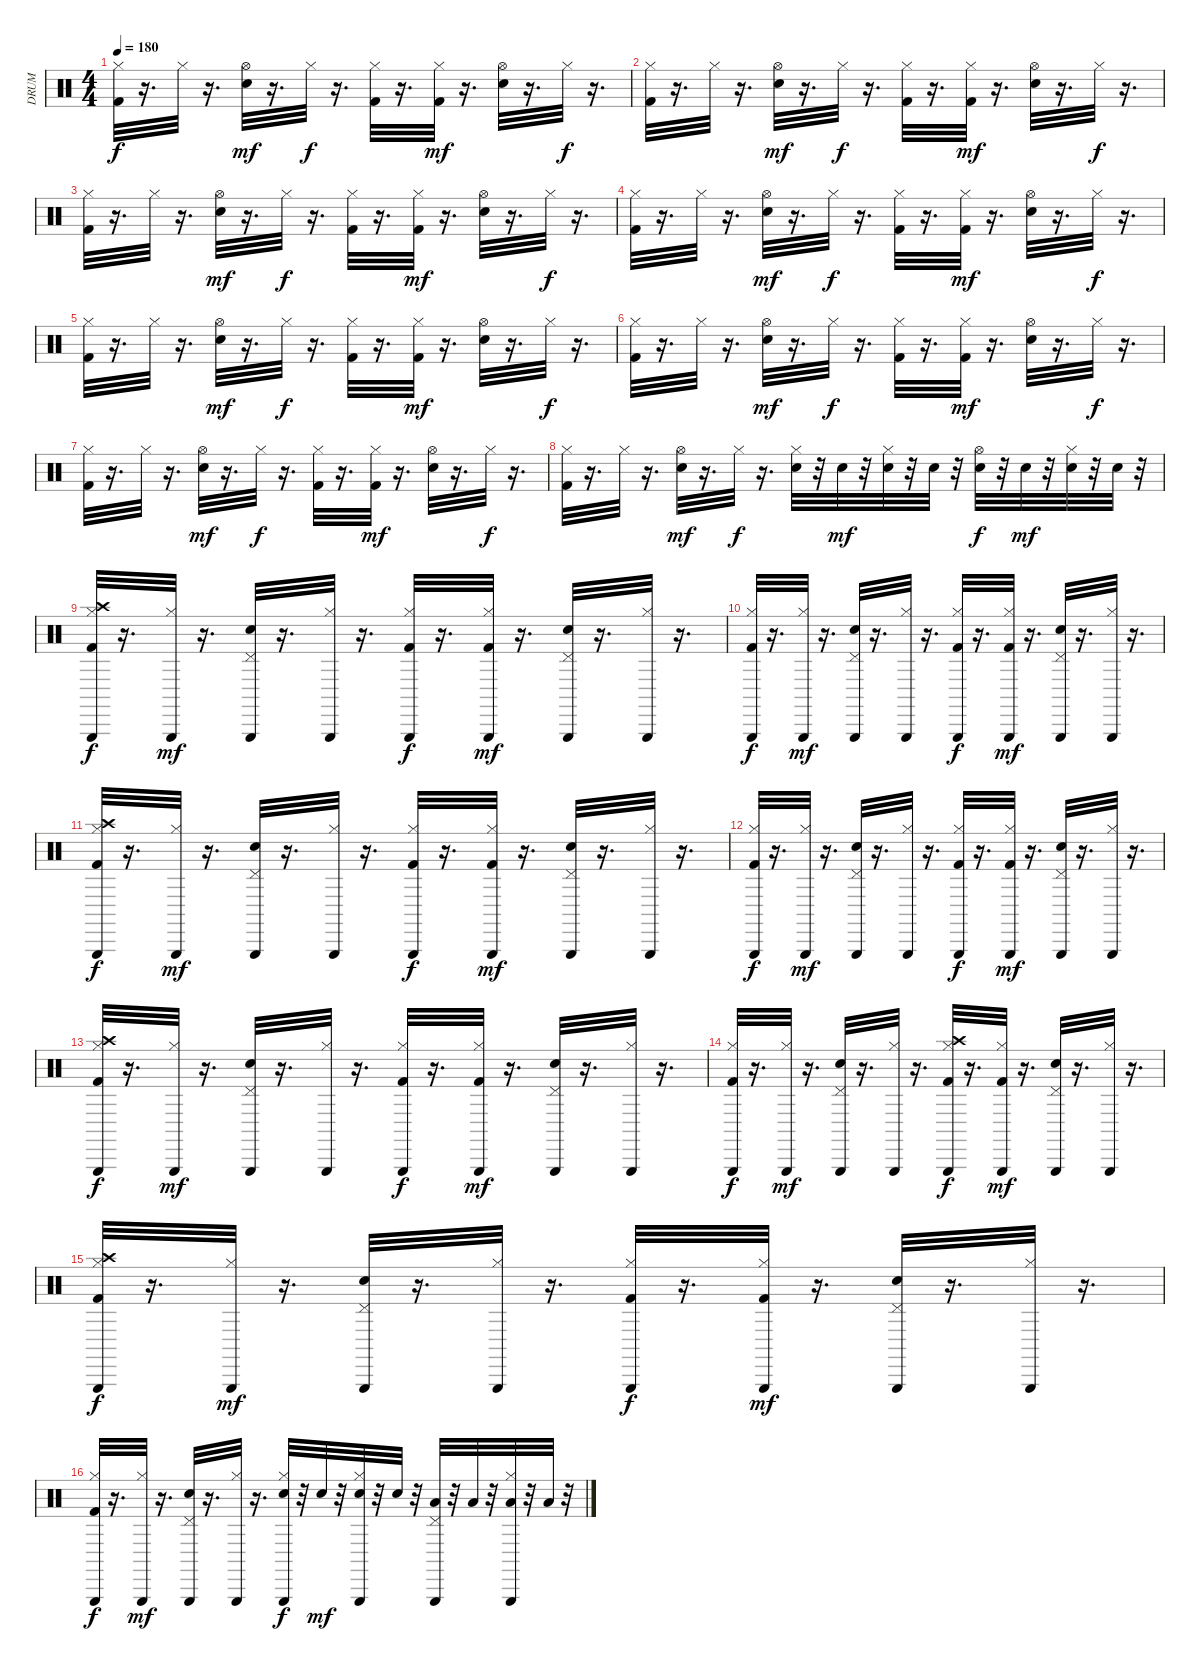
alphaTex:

\track ("DRUM" "DRUM") {instrument percussion}
\staff {score}
\articulation defaults
\ts (4 4)
\tempo 180
\clef neutral
\ks c
("Hi-Hat (closed)" "Kick (hit) 2").32{dy f} r.16{d} "Hi-Hat (closed)".32 r.16{d} ("Snare (hit) 2" "Hi-Hat (open)").32{dy mf} r.16{d} "Hi-Hat (closed)".32{dy f} r.16{d} ("Hi-Hat (closed)" "Kick (hit) 2").32 r.16{d} ("Hi-Hat (closed)" "Kick (hit) 2").32{dy mf} r.16{d} ("Hi-Hat (open)" "Snare (hit) 2").32 r.16{d} "Hi-Hat (closed)".32{dy f} r.16{d} |
("Kick (hit) 2" "Hi-Hat (closed)").32 r.16{d} "Hi-Hat (closed)".32 r.16{d} ("Hi-Hat (open)" "Snare (hit) 2").32{dy mf} r.16{d} "Hi-Hat (closed)".32{dy f} r.16{d} ("Hi-Hat (closed)" "Kick (hit) 2").32 r.16{d} ("Hi-Hat (closed)" "Kick (hit) 2").32{dy mf} r.16{d} ("Snare (hit) 2" "Hi-Hat (open)").32 r.16{d} "Hi-Hat (closed)".32{dy f} r.16{d} |
("Kick (hit) 2" "Hi-Hat (closed)").32 r.16{d} "Hi-Hat (closed)".32 r.16{d} ("Snare (hit) 2" "Hi-Hat (open)").32{dy mf} r.16{d} "Hi-Hat (closed)".32{dy f} r.16{d} ("Hi-Hat (closed)" "Kick (hit) 2").32 r.16{d} ("Hi-Hat (closed)" "Kick (hit) 2").32{dy mf} r.16{d} ("Hi-Hat (open)" "Snare (hit) 2").32 r.16{d} "Hi-Hat (closed)".32{dy f} r.16{d} |
("Hi-Hat (closed)" "Kick (hit) 2").32 r.16{d} "Hi-Hat (closed)".32 r.16{d} ("Hi-Hat (open)" "Snare (hit) 2").32{dy mf} r.16{d} "Hi-Hat (closed)".32{dy f} r.16{d} ("Kick (hit) 2" "Hi-Hat (closed)").32 r.16{d} ("Hi-Hat (closed)" "Kick (hit) 2").32{dy mf} r.16{d} ("Snare (hit) 2" "Hi-Hat (open)").32 r.16{d} "Hi-Hat (closed)".32{dy f} r.16{d} |
("Hi-Hat (closed)" "Kick (hit) 2").32 r.16{d} "Hi-Hat (closed)".32 r.16{d} ("Snare (hit) 2" "Hi-Hat (open)").32{dy mf} r.16{d} "Hi-Hat (closed)".32{dy f} r.16{d} ("Hi-Hat (closed)" "Kick (hit) 2").32 r.16{d} ("Hi-Hat (closed)" "Kick (hit) 2").32{dy mf} r.16{d} ("Snare (hit) 2" "Hi-Hat (open)").32 r.16{d} "Hi-Hat (closed)".32{dy f} r.16{d} |
("Hi-Hat (closed)" "Kick (hit) 2").32 r.16{d} "Hi-Hat (closed)".32 r.16{d} ("Snare (hit) 2" "Hi-Hat (open)").32{dy mf} r.16{d} "Hi-Hat (closed)".32{dy f} r.16{d} ("Hi-Hat (closed)" "Kick (hit) 2").32 r.16{d} ("Hi-Hat (closed)" "Kick (hit) 2").32{dy mf} r.16{d} ("Hi-Hat (open)" "Snare (hit) 2").32 r.16{d} "Hi-Hat (closed)".32{dy f} r.16{d} |
("Hi-Hat (closed)" "Kick (hit) 2").32 r.16{d} "Hi-Hat (closed)".32 r.16{d} ("Hi-Hat (open)" "Snare (hit) 2").32{dy mf} r.16{d} "Hi-Hat (closed)".32{dy f} r.16{d} ("Kick (hit) 2" "Hi-Hat (closed)").32 r.16{d} ("Kick (hit) 2" "Hi-Hat (closed)").32{dy mf} r.16{d} ("Snare (hit) 2" "Hi-Hat (open)").32 r.16{d} "Hi-Hat (closed)".32{dy f} r.16{d} |
("Kick (hit) 2" "Hi-Hat (closed)").32 r.16{d} "Hi-Hat (closed)".32 r.16{d} ("Hi-Hat (open)" "Snare (hit) 2").32{dy mf} r.16{d} "Hi-Hat (closed)".32{dy f} r.16{d} ("Electric Snare (hit)" "Hi-Hat (closed)").32 r.32 "Electric Snare (hit)".32{dy mf} r.32 ("Electric Snare (hit)" "Hi-Hat (closed)").32 r.32 "Electric Snare (hit)".32 r.32 ("Hi-Hat (open)" "Snare (hit) 2").32{dy f} r.32 "Snare (hit) 2".32{dy mf} r.32 ("Hi-Hat (closed)" "Snare (hit) 2").32 r.32 "Snare (hit) 2".32 r.32 |
("Kick (hit) 2" "Crash high (hit)" "Hi-Hat (closed)" "Triangle (hit)").32{dy f} r.16{d} ("Triangle (hit)" "Hi-Hat (closed)").32{dy mf} r.16{d} ("Triangle (hit)" "Snare (hit) 2" "Pedal Hi-Hat (hit)").32 r.16{d} ("Triangle (hit)" "Hi-Hat (closed)").32 r.16{d} ("Triangle (hit)" "Hi-Hat (closed)" "Kick (hit) 2").32{dy f} r.16{d} ("Triangle (hit)" "Kick (hit) 2" "Hi-Hat (closed)").32{dy mf} r.16{d} ("Snare (hit) 2" "Triangle (hit)" "Pedal Hi-Hat (hit)").32 r.16{d} ("Hi-Hat (closed)" "Triangle (hit)").32 r.16{d} |
("Hi-Hat (closed)" "Kick (hit) 2" "Triangle (hit)").32{dy f} r.16{d} ("Hi-Hat (closed)" "Triangle (hit)").32{dy mf} r.16{d} ("Pedal Hi-Hat (hit)" "Snare (hit) 2" "Triangle (hit)").32 r.16{d} ("Hi-Hat (closed)" "Triangle (hit)").32 r.16{d} ("Hi-Hat (closed)" "Kick (hit) 2" "Triangle (hit)").32{dy f} r.16{d} ("Hi-Hat (closed)" "Triangle (hit)" "Kick (hit) 2").32{dy mf} r.16{d} ("Pedal Hi-Hat (hit)" "Triangle (hit)" "Snare (hit) 2").32 r.16{d} ("Hi-Hat (closed)" "Triangle (hit)").32 r.16{d} |
("Kick (hit) 2" "Triangle (hit)" "Hi-Hat (closed)" "Crash high (hit)").32{dy f} r.16{d} ("Triangle (hit)" "Hi-Hat (closed)").32{dy mf} r.16{d} ("Pedal Hi-Hat (hit)" "Triangle (hit)" "Snare (hit) 2").32 r.16{d} ("Triangle (hit)" "Hi-Hat (closed)").32 r.16{d} ("Hi-Hat (closed)" "Kick (hit) 2" "Triangle (hit)").32{dy f} r.16{d} ("Hi-Hat (closed)" "Kick (hit) 2" "Triangle (hit)").32{dy mf} r.16{d} ("Snare (hit) 2" "Triangle (hit)" "Pedal Hi-Hat (hit)").32 r.16{d} ("Triangle (hit)" "Hi-Hat (closed)").32 r.16{d} |
("Hi-Hat (closed)" "Triangle (hit)" "Kick (hit) 2").32{dy f} r.16{d} ("Triangle (hit)" "Hi-Hat (closed)").32{dy mf} r.16{d} ("Triangle (hit)" "Snare (hit) 2" "Pedal Hi-Hat (hit)").32 r.16{d} ("Hi-Hat (closed)" "Triangle (hit)").32 r.16{d} ("Kick (hit) 2" "Hi-Hat (closed)" "Triangle (hit)").32{dy f} r.16{d} ("Hi-Hat (closed)" "Triangle (hit)" "Kick (hit) 2").32{dy mf} r.16{d} ("Triangle (hit)" "Pedal Hi-Hat (hit)" "Snare (hit) 2").32 r.16{d} ("Hi-Hat (closed)" "Triangle (hit)").32 r.16{d} |
("Hi-Hat (closed)" "Crash high (hit)" "Kick (hit) 2" "Triangle (hit)").32{dy f} r.16{d} ("Triangle (hit)" "Hi-Hat (closed)").32{dy mf} r.16{d} ("Triangle (hit)" "Pedal Hi-Hat (hit)" "Snare (hit) 2").32 r.16{d} ("Triangle (hit)" "Hi-Hat (closed)").32 r.16{d} ("Kick (hit) 2" "Triangle (hit)" "Hi-Hat (closed)").32{dy f} r.16{d} ("Kick (hit) 2" "Hi-Hat (closed)" "Triangle (hit)").32{dy mf} r.16{d} ("Pedal Hi-Hat (hit)" "Snare (hit) 2" "Triangle (hit)").32 r.16{d} ("Hi-Hat (closed)" "Triangle (hit)").32 r.16{d} |
("Kick (hit) 2" "Triangle (hit)" "Hi-Hat (closed)").32{dy f} r.16{d} ("Hi-Hat (closed)" "Triangle (hit)").32{dy mf} r.16{d} ("Pedal Hi-Hat (hit)" "Snare (hit) 2" "Triangle (hit)").32 r.16{d} ("Hi-Hat (closed)" "Triangle (hit)").32 r.16{d} ("Kick (hit) 2" "Crash high (hit)" "Triangle (hit)" "Hi-Hat (closed)").32{dy f} r.16{d} ("Triangle (hit)" "Hi-Hat (closed)" "Kick (hit) 2").32{dy mf} r.16{d} ("Triangle (hit)" "Pedal Hi-Hat (hit)" "Snare (hit) 2").32 r.16{d} ("Triangle (hit)" "Hi-Hat (closed)").32 r.16{d} |
("Kick (hit) 2" "Hi-Hat (closed)" "Crash high (hit)" "Triangle (hit)").32{dy f} r.16{d} ("Hi-Hat (closed)" "Triangle (hit)").32{dy mf} r.16{d} ("Snare (hit) 2" "Pedal Hi-Hat (hit)" "Triangle (hit)").32 r.16{d} ("Hi-Hat (closed)" "Triangle (hit)").32 r.16{d} ("Hi-Hat (closed)" "Triangle (hit)" "Kick (hit) 2").32{dy f} r.16{d} ("Triangle (hit)" "Hi-Hat (closed)" "Kick (hit) 2").32{dy mf} r.16{d} ("Pedal Hi-Hat (hit)" "Triangle (hit)" "Snare (hit) 2").32 r.16{d} ("Triangle (hit)" "Hi-Hat (closed)").32 r.16{d} |
("Kick (hit) 2" "Triangle (hit)" "Hi-Hat (closed)").32{dy f} r.16{d} ("Triangle (hit)" "Hi-Hat (closed)").32{dy mf} r.16{d} ("Pedal Hi-Hat (hit)" "Snare (hit) 2" "Triangle (hit)").32 r.16{d} ("Triangle (hit)" "Hi-Hat (closed)").32 r.16{d} ("Triangle (hit)" "Hi-Hat (closed)" "Snare (hit) 2").32{dy f} r.32 "Snare (hit) 2".32{dy mf} r.32 ("Snare (hit) 2" "Triangle (hit)" "Hi-Hat (closed)").32 r.32 "Snare (hit) 2".32 r.32 ("Triangle (hit)" "Low Floor Tom (hit)" "Pedal Hi-Hat (hit)").32 r.32 "Low Floor Tom (hit)".32 r.32 ("Triangle (hit)" "Low Floor Tom (hit)" "Hi-Hat (closed)").32 r.32 "Low Floor Tom (hit)".32 r.32
